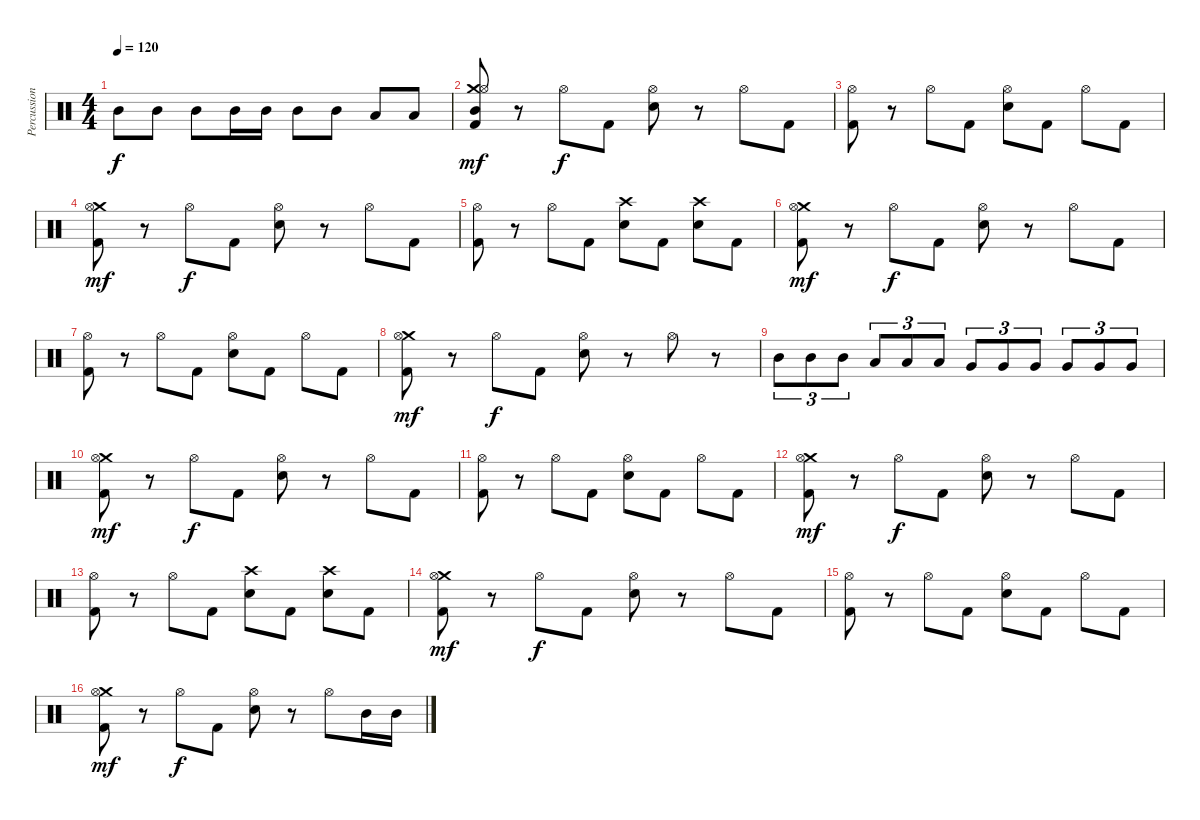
\track ("Percussion" "Percussion") {instrument percussion}
\staff {score}
\articulation defaults
\ts (4 4)
\tempo 120
\clef neutral
\ks c "Mid Tom (hit)".8{dy f} "Mid Tom (hit)".8 "Mid Tom (hit)".8 "Mid Tom (hit)".16 "Mid Tom (hit)".16 "Mid Tom (hit)".8 "Mid Tom (hit)".8 "Low Tom (hit)".8 "Low Tom (hit)".8
|
("Crash medium (hit)" "Hi-Hat (open)" "Mid Tom (hit)" "Kick (hit) 2").8{dy mf} r.8 "Hi-Hat (open)".8{dy f} "Kick (hit) 2".8 ("Hi-Hat (open)" "Electric Snare (hit)").8 r.8 "Hi-Hat (open)".8 "Kick (hit) 2".8 |
("Hi-Hat (open)" "Kick (hit) 2").8 r.8 "Hi-Hat (open)".8 "Kick (hit) 2".8 ("Hi-Hat (open)" "Electric Snare (hit)").8 "Kick (hit) 2".8 "Hi-Hat (open)".8 "Kick (hit) 2".8 |
("Crash medium (hit)" "Hi-Hat (open)" "Kick (hit) 2").8{dy mf} r.8 "Hi-Hat (open)".8{dy f} "Kick (hit) 2".8 ("Hi-Hat (open)" "Electric Snare (hit)").8 r.8 "Hi-Hat (open)".8 "Kick (hit) 2".8 |
("Hi-Hat (open)" "Kick (hit) 2").8 r.8 "Hi-Hat (open)".8 "Kick (hit) 2".8 ("Crash high (hit)" "Electric Snare (hit)").8 "Kick (hit) 2".8 ("Crash high (hit)" "Electric Snare (hit)").8 "Kick (hit) 2".8 |
("Crash medium (hit)" "Hi-Hat (open)" "Kick (hit) 2").8{dy mf} r.8 "Hi-Hat (open)".8{dy f} "Kick (hit) 2".8 ("Hi-Hat (open)" "Electric Snare (hit)").8 r.8 "Hi-Hat (open)".8 "Kick (hit) 2".8 |
("Hi-Hat (open)" "Kick (hit) 2").8 r.8 "Hi-Hat (open)".8 "Kick (hit) 2".8 ("Hi-Hat (open)" "Electric Snare (hit)").8 "Kick (hit) 2".8 "Hi-Hat (open)".8 "Kick (hit) 2".8 |
("Crash medium (hit)" "Hi-Hat (open)" "Kick (hit) 2").8{dy mf} r.8 "Hi-Hat (open)".8{dy f} "Kick (hit) 2".8 ("Hi-Hat (open)" "Electric Snare (hit)").8 r.8 "Hi-Hat (open)".8 r.8 |
"Mid Tom (hit)".8{tu (3 2)} "Mid Tom (hit)".8{tu (3 2)} "Mid Tom (hit)".8{tu (3 2)} "Low Tom (hit)".8{tu (3 2)} "Low Tom (hit)".8{tu (3 2)} "Low Tom (hit)".8{tu (3 2)} "Very Low Tom (hit)".8{tu (3 2)} "Very Low Tom (hit)".8{tu (3 2)} "Very Low Tom (hit)".8{tu (3 2)} "Very Low Tom (hit)".8{tu (3 2)} "Very Low Tom (hit)".8{tu (3 2)} "Very Low Tom (hit)".8{tu (3 2)} |
("Crash medium (hit)" "Hi-Hat (open)" "Kick (hit) 2").8{dy mf} r.8 "Hi-Hat (open)".8{dy f} "Kick (hit) 2".8 ("Hi-Hat (open)" "Electric Snare (hit)").8 r.8 "Hi-Hat (open)".8 "Kick (hit) 2".8 |
("Hi-Hat (open)" "Kick (hit) 2").8 r.8 "Hi-Hat (open)".8 "Kick (hit) 2".8 ("Hi-Hat (open)" "Electric Snare (hit)").8 "Kick (hit) 2".8 "Hi-Hat (open)".8 "Kick (hit) 2".8 |
("Crash medium (hit)" "Hi-Hat (open)" "Kick (hit) 2").8{dy mf} r.8 "Hi-Hat (open)".8{dy f} "Kick (hit) 2".8 ("Hi-Hat (open)" "Electric Snare (hit)").8 r.8 "Hi-Hat (open)".8 "Kick (hit) 2".8 |
("Hi-Hat (open)" "Kick (hit) 2").8 r.8 "Hi-Hat (open)".8 "Kick (hit) 2".8 ("Crash high (hit)" "Electric Snare (hit)").8 "Kick (hit) 2".8 ("Crash high (hit)" "Electric Snare (hit)").8 "Kick (hit) 2".8 |
("Crash medium (hit)" "Hi-Hat (open)" "Kick (hit) 2").8{dy mf} r.8 "Hi-Hat (open)".8{dy f} "Kick (hit) 2".8 ("Hi-Hat (open)" "Electric Snare (hit)").8 r.8 "Hi-Hat (open)".8 "Kick (hit) 2".8 |
("Hi-Hat (open)" "Kick (hit) 2").8 r.8 "Hi-Hat (open)".8 "Kick (hit) 2".8 ("Hi-Hat (open)" "Electric Snare (hit)").8 "Kick (hit) 2".8 "Hi-Hat (open)".8 "Kick (hit) 2".8 |
("Crash medium (hit)" "Hi-Hat (open)" "Kick (hit) 2").8{dy mf} r.8 "Hi-Hat (open)".8{dy f} "Kick (hit) 2".8 ("Hi-Hat (open)" "Electric Snare (hit)").8 r.8 "Hi-Hat (open)".8 "Mid Tom (hit)".16 "Mid Tom (hit)".16
